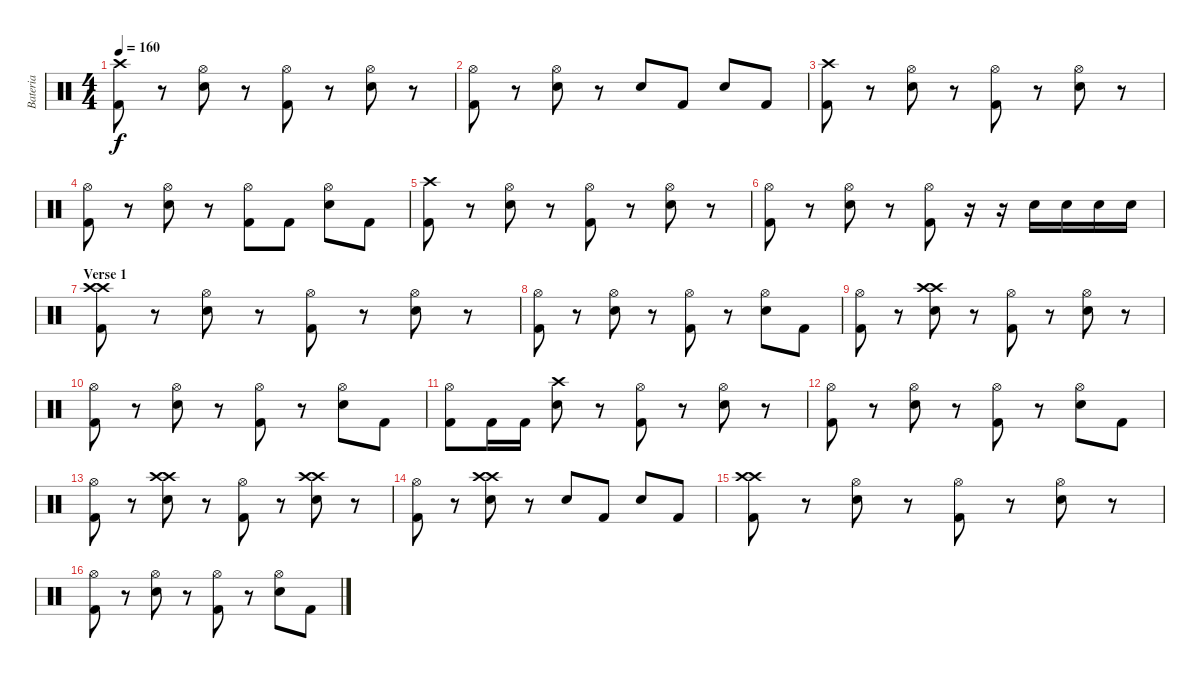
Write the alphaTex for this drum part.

\track ("Bateria" "Bateria") {instrument percussion}
\staff {score}
\articulation defaults
\ts (4 4)
\tempo 160
\clef neutral
\ks c
("Crash high (hit)" "Kick (hit) 2").8{dy f} r.8 ("Hi-Hat (open)" "Snare (hit) 2").8 r.8 ("Hi-Hat (open)" "Kick (hit) 2").8 r.8 ("Hi-Hat (open)" "Snare (hit) 2").8 r.8 |
("Hi-Hat (open)" "Kick (hit) 2").8 r.8 ("Hi-Hat (open)" "Snare (hit) 2").8 r.8 "Snare (hit) 2".8 "Kick (hit) 2".8 "Snare (hit) 2".8 "Kick (hit) 2".8 |
("Crash high (hit)" "Kick (hit) 2").8 r.8 ("Hi-Hat (open)" "Snare (hit) 2").8 r.8 ("Hi-Hat (open)" "Kick (hit) 2").8 r.8 ("Hi-Hat (open)" "Snare (hit) 2").8 r.8 |
("Hi-Hat (open)" "Kick (hit) 2").8 r.8 ("Hi-Hat (open)" "Snare (hit) 2").8 r.8 ("Hi-Hat (open)" "Kick (hit) 2").8 "Kick (hit) 2".8 ("Hi-Hat (open)" "Snare (hit) 2").8 "Kick (hit) 2".8 |
("Crash high (hit)" "Kick (hit) 2").8 r.8 ("Hi-Hat (open)" "Snare (hit) 2").8 r.8 ("Hi-Hat (open)" "Kick (hit) 2").8 r.8 ("Hi-Hat (open)" "Snare (hit) 2").8 r.8 |
("Hi-Hat (open)" "Kick (hit) 2").8 r.8 ("Hi-Hat (open)" "Snare (hit) 2").8 r.8 ("Hi-Hat (open)" "Kick (hit) 2").8 r.16 r.16 "Snare (hit) 2".16 "Snare (hit) 2".16 "Snare (hit) 2".16 "Snare (hit) 2".16 |
\section ("" "Verse 1")
("Crash high (hit)" "Crash high (hit)" "Kick (hit) 2").8 r.8 ("Hi-Hat (open)" "Snare (hit) 2").8 r.8 ("Hi-Hat (open)" "Kick (hit) 2").8 r.8 ("Hi-Hat (open)" "Snare (hit) 2").8 r.8 |
("Hi-Hat (open)" "Kick (hit) 2").8 r.8 ("Hi-Hat (open)" "Snare (hit) 2").8 r.8 ("Hi-Hat (open)" "Kick (hit) 2").8 r.8 ("Hi-Hat (open)" "Snare (hit) 2").8 "Kick (hit) 2".8 |
("Hi-Hat (open)" "Kick (hit) 2").8 r.8 ("Crash high (hit)" "Crash high (hit)" "Snare (hit) 2").8 r.8 ("Hi-Hat (open)" "Kick (hit) 2").8 r.8 ("Hi-Hat (open)" "Snare (hit) 2").8 r.8 |
("Hi-Hat (open)" "Kick (hit) 2").8 r.8 ("Hi-Hat (open)" "Snare (hit) 2").8 r.8 ("Hi-Hat (open)" "Kick (hit) 2").8 r.8 ("Hi-Hat (open)" "Snare (hit) 2").8 "Kick (hit) 2".8 |
("Hi-Hat (open)" "Kick (hit) 2").8 "Kick (hit) 2".16 "Kick (hit) 2".16 ("Crash high (hit)" "Snare (hit) 2").8 r.8 ("Hi-Hat (open)" "Kick (hit) 2").8 r.8 ("Hi-Hat (open)" "Snare (hit) 2").8 r.8 |
("Hi-Hat (open)" "Kick (hit) 2").8 r.8 ("Hi-Hat (open)" "Snare (hit) 2").8 r.8 ("Hi-Hat (open)" "Kick (hit) 2").8 r.8 ("Hi-Hat (open)" "Snare (hit) 2").8 "Kick (hit) 2".8 |
("Hi-Hat (open)" "Kick (hit) 2").8 r.8 ("Crash high (hit)" "Crash high (hit)" "Snare (hit) 2").8 r.8 ("Hi-Hat (open)" "Kick (hit) 2").8 r.8 ("Crash high (hit)" "Crash high (hit)" "Snare (hit) 2").8 r.8 |
("Hi-Hat (open)" "Kick (hit) 2").8 r.8 ("Crash high (hit)" "Crash high (hit)" "Snare (hit) 2").8 r.8 "Snare (hit) 2".8 "Kick (hit) 2".8 "Snare (hit) 2".8 "Kick (hit) 2".8 |
("Crash high (hit)" "Crash high (hit)" "Kick (hit) 2").8 r.8 ("Hi-Hat (open)" "Snare (hit) 2").8 r.8 ("Hi-Hat (open)" "Kick (hit) 2").8 r.8 ("Hi-Hat (open)" "Snare (hit) 2").8 r.8 |
("Hi-Hat (open)" "Kick (hit) 2").8 r.8 ("Hi-Hat (open)" "Snare (hit) 2").8 r.8 ("Hi-Hat (open)" "Kick (hit) 2").8 r.8 ("Hi-Hat (open)" "Snare (hit) 2").8 "Kick (hit) 2".8
